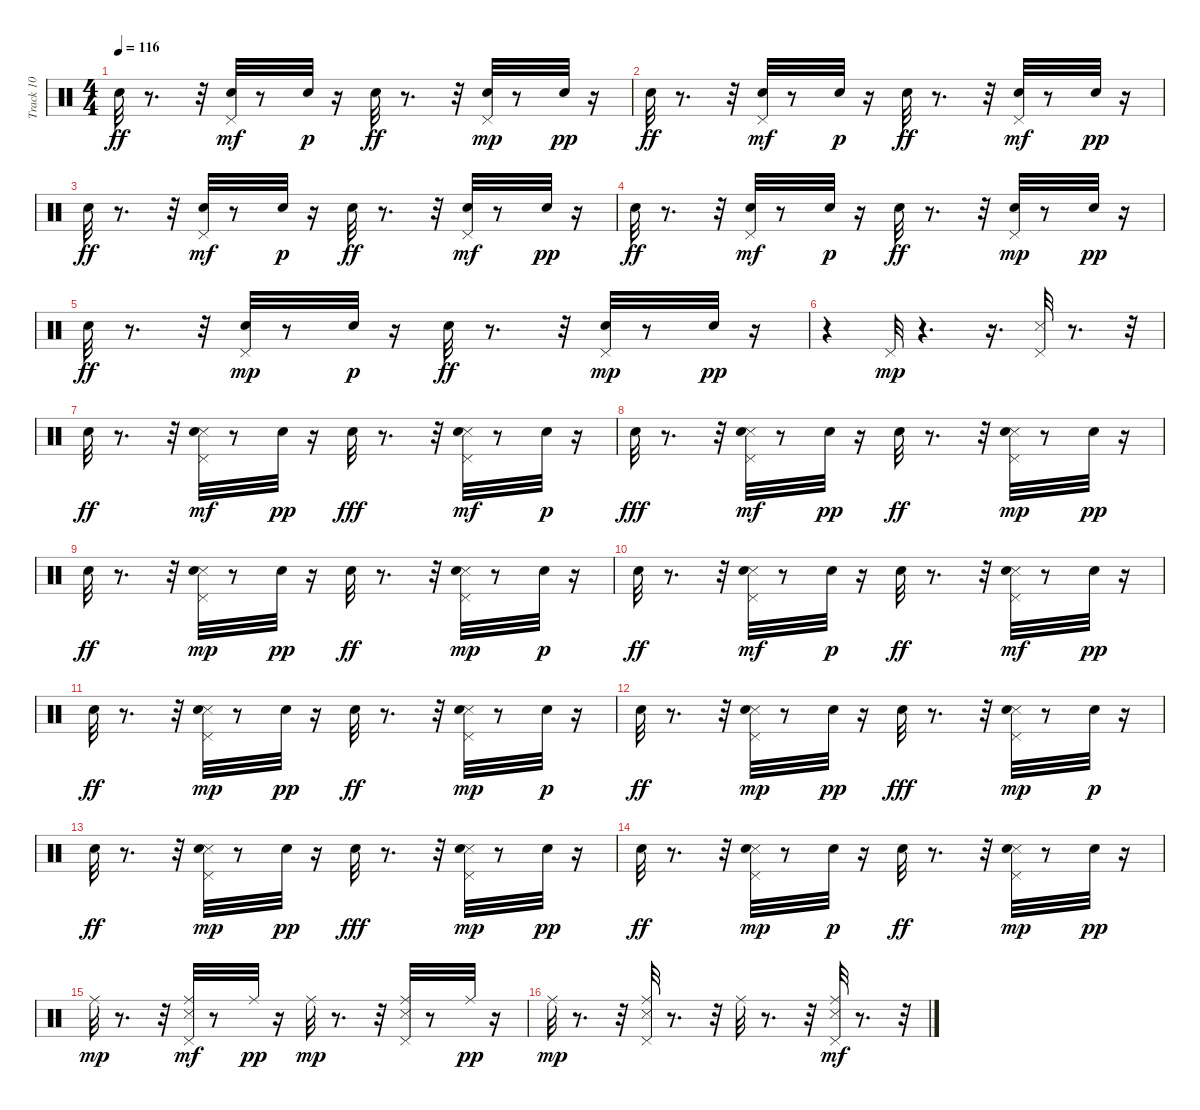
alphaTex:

\track ("Track 10" "Track 10") {instrument percussion}
\staff {score}
\articulation defaults
\ts (4 4)
\tempo 116
\clef neutral
\ks c "Snare (hit) 2".32{dy ff}
r.8{d} r.32 ("Snare (hit) 2" "Pedal Hi-Hat (hit)").32{dy mf} r.8 "Snare (hit) 2".32{dy p} r.16 "Snare (hit) 2".32{dy ff} r.8{d} r.32 ("Snare (hit) 2" "Pedal Hi-Hat (hit)").32{dy mp} r.8 "Snare (hit) 2".32{dy pp} r.16 |
"Snare (hit) 2".32{dy ff} r.8{d} r.32 ("Snare (hit) 2" "Pedal Hi-Hat (hit)").32{dy mf} r.8 "Snare (hit) 2".32{dy p} r.16 "Snare (hit) 2".32{dy ff} r.8{d} r.32 ("Snare (hit) 2" "Pedal Hi-Hat (hit)").32{dy mf} r.8 "Snare (hit) 2".32{dy pp} r.16 |
"Snare (hit) 2".32{dy ff} r.8{d} r.32 ("Snare (hit) 2" "Pedal Hi-Hat (hit)").32{dy mf} r.8 "Snare (hit) 2".32{dy p} r.16 "Snare (hit) 2".32{dy ff} r.8{d} r.32 ("Snare (hit) 2" "Pedal Hi-Hat (hit)").32{dy mf} r.8 "Snare (hit) 2".32{dy pp} r.16 |
"Snare (hit) 2".32{dy ff} r.8{d} r.32 ("Snare (hit) 2" "Pedal Hi-Hat (hit)").32{dy mf} r.8 "Snare (hit) 2".32{dy p} r.16 "Snare (hit) 2".32{dy ff} r.8{d} r.32 ("Snare (hit) 2" "Pedal Hi-Hat (hit)").32{dy mp} r.8 "Snare (hit) 2".32{dy pp} r.16 |
"Snare (hit) 2".32{dy ff} r.8{d} r.32 ("Snare (hit) 2" "Pedal Hi-Hat (hit)").32{dy mp} r.8 "Snare (hit) 2".32{dy p} r.16 "Snare (hit) 2".32{dy ff} r.8{d} r.32 ("Snare (hit) 2" "Pedal Hi-Hat (hit)").32{dy mp} r.8 "Snare (hit) 2".32{dy pp} r.16 |
r.4 "Pedal Hi-Hat (hit)".32{dy mp} r.4{d} r.16{d} ("Snare (side stick) 3" "Pedal Hi-Hat (hit)").32 r.8{d} r.32 |
"Snare (hit) 2".32{dy ff} r.8{d} r.32 ("Snare (side stick) 3" "Snare (hit) 2" "Pedal Hi-Hat (hit)").32{dy mf} r.8 "Snare (hit) 2".32{dy pp} r.16 "Snare (hit) 2".32{dy fff} r.8{d} r.32 ("Snare (side stick) 3" "Snare (hit) 2" "Pedal Hi-Hat (hit)").32{dy mf} r.8 "Snare (hit) 2".32{dy p} r.16 |
"Snare (hit) 2".32{dy fff} r.8{d} r.32 ("Snare (side stick) 3" "Snare (hit) 2" "Pedal Hi-Hat (hit)").32{dy mf} r.8 "Snare (hit) 2".32{dy pp} r.16 "Snare (hit) 2".32{dy ff} r.8{d} r.32 ("Snare (side stick) 3" "Snare (hit) 2" "Pedal Hi-Hat (hit)").32{dy mp} r.8 "Snare (hit) 2".32{dy pp} r.16 |
"Snare (hit) 2".32{dy ff} r.8{d} r.32 ("Snare (side stick) 3" "Snare (hit) 2" "Pedal Hi-Hat (hit)").32{dy mp} r.8 "Snare (hit) 2".32{dy pp} r.16 "Snare (hit) 2".32{dy ff} r.8{d} r.32 ("Snare (side stick) 3" "Snare (hit) 2" "Pedal Hi-Hat (hit)").32{dy mp} r.8 "Snare (hit) 2".32{dy p} r.16 |
"Snare (hit) 2".32{dy ff} r.8{d} r.32 ("Snare (side stick) 3" "Snare (hit) 2" "Pedal Hi-Hat (hit)").32{dy mf} r.8 "Snare (hit) 2".32{dy p} r.16 "Snare (hit) 2".32{dy ff} r.8{d} r.32 ("Snare (side stick) 3" "Snare (hit) 2" "Pedal Hi-Hat (hit)").32{dy mf} r.8 "Snare (hit) 2".32{dy pp} r.16 |
"Snare (hit) 2".32{dy ff} r.8{d} r.32 ("Snare (side stick) 3" "Snare (hit) 2" "Pedal Hi-Hat (hit)").32{dy mp} r.8 "Snare (hit) 2".32{dy pp} r.16 "Snare (hit) 2".32{dy ff} r.8{d} r.32 ("Snare (side stick) 3" "Snare (hit) 2" "Pedal Hi-Hat (hit)").32{dy mp} r.8 "Snare (hit) 2".32{dy p} r.16 |
"Snare (hit) 2".32{dy ff} r.8{d} r.32 ("Snare (side stick) 3" "Snare (hit) 2" "Pedal Hi-Hat (hit)").32{dy mp} r.8 "Snare (hit) 2".32{dy pp} r.16 "Snare (hit) 2".32{dy fff} r.8{d} r.32 ("Snare (side stick) 3" "Snare (hit) 2" "Pedal Hi-Hat (hit)").32{dy mp} r.8 "Snare (hit) 2".32{dy p} r.16 |
"Snare (hit) 2".32{dy ff} r.8{d} r.32 ("Snare (side stick) 3" "Snare (hit) 2" "Pedal Hi-Hat (hit)").32{dy mp} r.8 "Snare (hit) 2".32{dy pp} r.16 "Snare (hit) 2".32{dy fff} r.8{d} r.32 ("Snare (side stick) 3" "Snare (hit) 2" "Pedal Hi-Hat (hit)").32{dy mp} r.8 "Snare (hit) 2".32{dy pp} r.16 |
"Snare (hit) 2".32{dy ff} r.8{d} r.32 ("Snare (side stick) 3" "Snare (hit) 2" "Pedal Hi-Hat (hit)").32{dy mp} r.8 "Snare (hit) 2".32{dy p} r.16 "Snare (hit) 2".32{dy ff} r.8{d} r.32 ("Snare (side stick) 3" "Snare (hit) 2" "Pedal Hi-Hat (hit)").32{dy mp} r.8 "Snare (hit) 2".32{dy pp} r.16 |
"Ride (middle)".32{dy mp} r.8{d} r.32 ("Snare (side stick) 3" "Ride (middle)" "Pedal Hi-Hat (hit)").32{dy mf} r.8 "Ride (middle)".32{dy pp} r.16 "Ride (middle)".32{dy mp} r.8{d} r.32 ("Snare (side stick) 3" "Ride (middle)" "Pedal Hi-Hat (hit)").32 r.8 "Ride (middle)".32{dy pp} r.16 |
"Ride (middle)".32{dy mp} r.8{d} r.32 ("Snare (side stick) 3" "Ride (middle)" "Pedal Hi-Hat (hit)").32 r.8{d} r.32 "Ride (middle)".32 r.8{d} r.32 ("Snare (side stick) 3" "Ride (middle)" "Pedal Hi-Hat (hit)").32{dy mf} r.8{d} r.32
